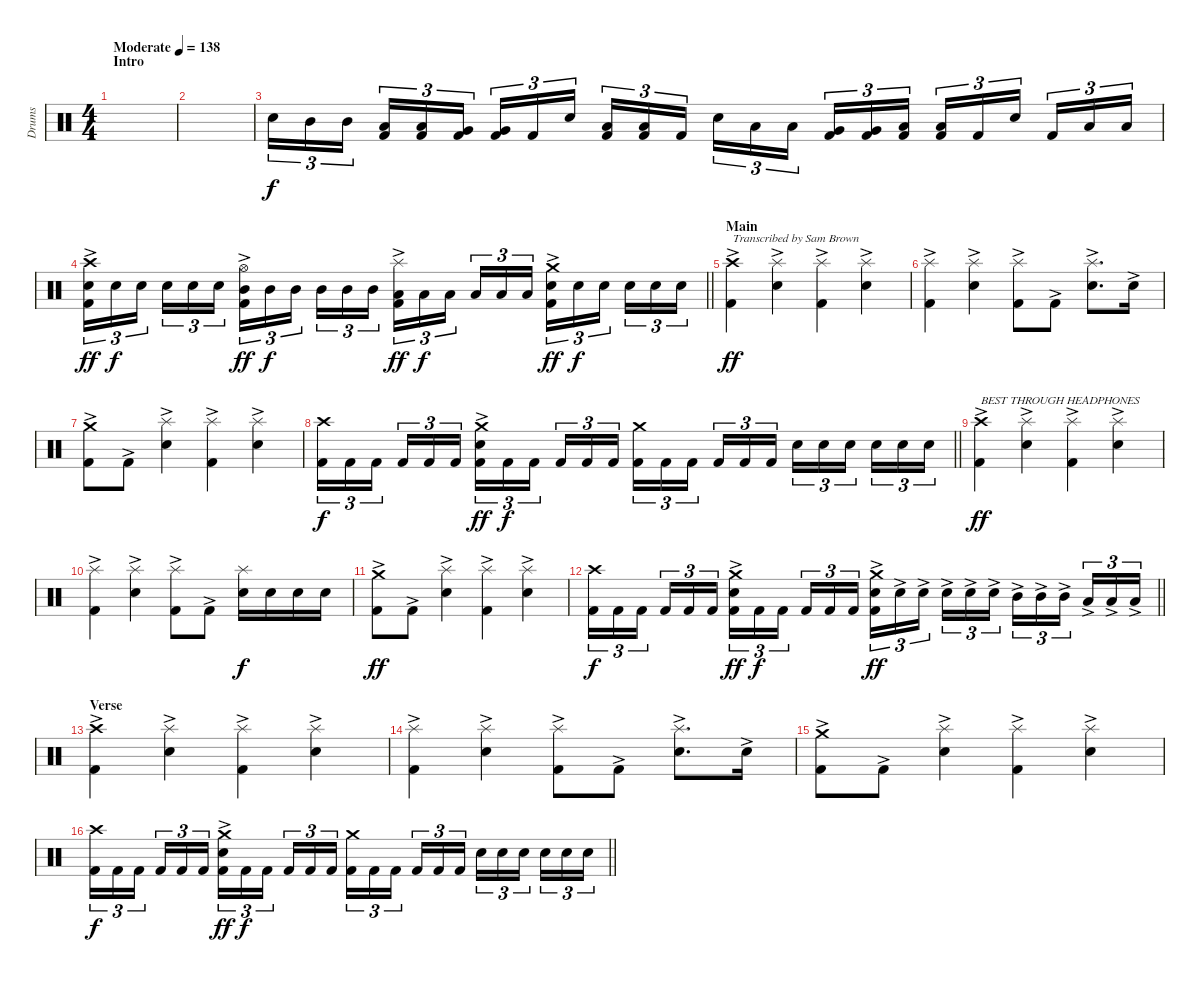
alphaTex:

\track ("Drums" "Drums") {instrument percussion}
\staff {score}
\articulation defaults
\ts (4 4)
\section ("" "Intro")
\tempo (138 "Moderate")
\clef neutral
\ks c
|
|
"Snare (hit) 2".16{tu (3 2)} "Mid Tom (hit)".16{tu (3 2)} "Mid Tom (hit)".16{tu (3 2) beam splitsecondary} ("Kick (hit) 2" "Low Tom (hit)").16{tu (3 2)} ("Kick (hit) 2" "Low Tom (hit)").16{tu (3 2)} ("Kick (hit) 2" "Very Low Tom (hit)").16{tu (3 2)} ("Kick (hit) 2" "Very Low Tom (hit)").16{tu (3 2)} "Kick (hit) 2".16{tu (3 2)} "Snare (hit) 2".16{tu (3 2) beam splitsecondary} ("Kick (hit) 2" "Low Tom (hit)").16{tu (3 2)} ("Kick (hit) 2" "Low Tom (hit)").16{tu (3 2)} "Kick (hit) 2".16{tu (3 2)} "Snare (hit) 2".16{tu (3 2)} "Low Tom (hit)".16{tu (3 2)} "Low Tom (hit)".16{tu (3 2) beam splitsecondary} ("Kick (hit) 2" "Very Low Tom (hit)").16{tu (3 2)} ("Kick (hit) 2" "Very Low Tom (hit)").16{tu (3 2)} ("Kick (hit) 2" "Low Floor Tom (hit)").16{tu (3 2)} ("Kick (hit) 2" "Low Floor Tom (hit)").16{tu (3 2)} "Kick (hit) 2".16{tu (3 2)} "Snare (hit) 2".16{tu (3 2) beam splitsecondary} "Kick (hit) 2".16{tu (3 2)} "Low Tom (hit)".16{tu (3 2)} "Low Tom (hit)".16{tu (3 2)} |
\barLineRight lightlight
("Kick (hit) 2"{ac} "Snare (hit) 2" "Crash high (hit)").16{tu (3 2) dy ff} "Snare (hit) 2".16{tu (3 2) dy f} "Snare (hit) 2".16{tu (3 2) beam splitsecondary} "Snare (hit) 2".16{tu (3 2)} "Snare (hit) 2".16{tu (3 2)} "Snare (hit) 2".16{tu (3 2)} ("Kick (hit) 2"{ac} "Mid Tom (hit)" "Hi-Hat (open)").16{tu (3 2) dy ff} "Mid Tom (hit)".16{tu (3 2) dy f} "Mid Tom (hit)".16{tu (3 2) beam splitsecondary} "Mid Tom (hit)".16{tu (3 2)} "Mid Tom (hit)".16{tu (3 2)} "Mid Tom (hit)".16{tu (3 2)} ("Kick (hit) 2"{ac} "Low Tom (hit)" "Splash (hit)").16{tu (3 2) dy ff} "Low Tom (hit)".16{tu (3 2) dy f} "Low Tom (hit)".16{tu (3 2) beam splitsecondary} "Low Tom (hit)".16{tu (3 2)} "Low Tom (hit)".16{tu (3 2)} "Low Tom (hit)".16{tu (3 2)} ("Kick (hit) 2"{ac} "Snare (hit) 2" "Crash medium (hit)").16{tu (3 2) dy ff} "Snare (hit) 2".16{tu (3 2) dy f} "Snare (hit) 2".16{tu (3 2) beam splitsecondary} "Snare (hit) 2".16{tu (3 2)} "Snare (hit) 2".16{tu (3 2)} "Snare (hit) 2".16{tu (3 2)} |
\section ("" "Main")
("Kick (hit) 2"{ac} "Crash high (hit)").4{txt "Transcribed by Sam Brown" dy ff} ("Snare (hit) 2"{ac} "Splash (hit)").4 ("Kick (hit) 2"{ac} "Splash (hit)").4 ("Snare (hit) 2"{ac} "Splash (hit)").4 |
("Kick (hit) 2"{ac} "Splash (hit)").4 ("Snare (hit) 2"{ac} "Splash (hit)").4 ("Kick (hit) 2"{ac} "Splash (hit)").8 "Kick (hit) 2"{ac}.8 ("Snare (hit) 2"{ac} "Splash (hit)").8{d} "Snare (hit) 2"{ac}.16 |
("Kick (hit) 2"{ac} "Crash medium (hit)").8 "Kick (hit) 2"{ac}.8 ("Snare (hit) 2"{ac} "Splash (hit)").4 ("Kick (hit) 2"{ac} "Splash (hit)").4 ("Snare (hit) 2"{ac} "Splash (hit)").4 |
\barLineRight lightlight
("Kick (hit) 2" "Crash high (hit)").16{tu (3 2) dy f} "Kick (hit) 2".16{tu (3 2)} "Kick (hit) 2".16{tu (3 2) beam splitsecondary} "Kick (hit) 2".16{tu (3 2)} "Kick (hit) 2".16{tu (3 2)} "Kick (hit) 2".16{tu (3 2)} ("Kick (hit) 2" "Snare (hit) 2"{ac} "Crash medium (hit)").16{tu (3 2) dy ff} "Kick (hit) 2".16{tu (3 2) dy f} "Kick (hit) 2".16{tu (3 2) beam splitsecondary} "Kick (hit) 2".16{tu (3 2)} "Kick (hit) 2".16{tu (3 2)} "Kick (hit) 2".16{tu (3 2)} ("Kick (hit) 2" "Crash medium (hit)").16{tu (3 2)} "Kick (hit) 2".16{tu (3 2)} "Kick (hit) 2".16{tu (3 2) beam splitsecondary} "Kick (hit) 2".16{tu (3 2)} "Kick (hit) 2".16{tu (3 2)} "Kick (hit) 2".16{tu (3 2)} "Snare (hit) 2".16{tu (3 2)} "Snare (hit) 2".16{tu (3 2)} "Snare (hit) 2".16{tu (3 2) beam splitsecondary} "Snare (hit) 2".16{tu (3 2)} "Snare (hit) 2".16{tu (3 2)} "Snare (hit) 2".16{tu (3 2)} |
\section ("" "")
("Kick (hit) 2"{ac} "Crash high (hit)").4{txt "BEST THROUGH HEADPHONES" dy ff} ("Snare (hit) 2"{ac} "Splash (hit)").4 ("Kick (hit) 2"{ac} "Splash (hit)").4 ("Snare (hit) 2"{ac} "Splash (hit)").4 |
("Kick (hit) 2"{ac} "Splash (hit)").4 ("Snare (hit) 2"{ac} "Splash (hit)").4 ("Kick (hit) 2"{ac} "Splash (hit)").8 "Kick (hit) 2"{ac}.8 ("Snare (hit) 2" "Splash (hit)").16{dy f} "Snare (hit) 2".16 "Snare (hit) 2".16 "Snare (hit) 2".16 |
("Kick (hit) 2"{ac} "Crash medium (hit)").8{dy ff} "Kick (hit) 2"{ac}.8 ("Snare (hit) 2"{ac} "Splash (hit)").4 ("Kick (hit) 2"{ac} "Splash (hit)").4 ("Snare (hit) 2"{ac} "Splash (hit)").4 |
\barLineRight lightlight
("Kick (hit) 2" "Crash high (hit)").16{tu (3 2) dy f} "Kick (hit) 2".16{tu (3 2)} "Kick (hit) 2".16{tu (3 2) beam splitsecondary} "Kick (hit) 2".16{tu (3 2)} "Kick (hit) 2".16{tu (3 2)} "Kick (hit) 2".16{tu (3 2)} ("Kick (hit) 2" "Snare (hit) 2"{ac} "Crash medium (hit)").16{tu (3 2) dy ff} "Kick (hit) 2".16{tu (3 2) dy f} "Kick (hit) 2".16{tu (3 2) beam splitsecondary} "Kick (hit) 2".16{tu (3 2)} "Kick (hit) 2".16{tu (3 2)} "Kick (hit) 2".16{tu (3 2)} ("Kick (hit) 2" "Snare (hit) 2"{ac} "Crash medium (hit)").16{tu (3 2) dy ff} "Snare (hit) 2"{ac}.16{tu (3 2)} "Snare (hit) 2"{ac}.16{tu (3 2) beam splitsecondary} "Snare (hit) 2"{ac}.16{tu (3 2)} "Snare (hit) 2"{ac}.16{tu (3 2)} "Snare (hit) 2"{ac}.16{tu (3 2)} "Mid Tom (hit)"{ac}.16{tu (3 2)} "Mid Tom (hit)"{ac}.16{tu (3 2)} "Mid Tom (hit)"{ac}.16{tu (3 2) beam splitsecondary} "Low Tom (hit)"{ac}.16{tu (3 2)} "Low Tom (hit)"{ac}.16{tu (3 2)} "Low Tom (hit)"{ac}.16{tu (3 2)} |
\section ("" "Verse")
("Kick (hit) 2"{ac} "Crash high (hit)").4 ("Snare (hit) 2"{ac} "Splash (hit)").4 ("Kick (hit) 2"{ac} "Splash (hit)").4 ("Snare (hit) 2"{ac} "Splash (hit)").4 |
("Kick (hit) 2"{ac} "Splash (hit)").4 ("Snare (hit) 2"{ac} "Splash (hit)").4 ("Kick (hit) 2"{ac} "Splash (hit)").8 "Kick (hit) 2"{ac}.8 ("Snare (hit) 2"{ac} "Splash (hit)").8{d} "Snare (hit) 2"{ac}.16 |
("Kick (hit) 2"{ac} "Crash medium (hit)").8 "Kick (hit) 2"{ac}.8 ("Snare (hit) 2"{ac} "Splash (hit)").4 ("Kick (hit) 2"{ac} "Splash (hit)").4 ("Snare (hit) 2"{ac} "Splash (hit)").4 |
\barLineRight lightlight
("Kick (hit) 2" "Crash high (hit)").16{tu (3 2) dy f} "Kick (hit) 2".16{tu (3 2)} "Kick (hit) 2".16{tu (3 2) beam splitsecondary} "Kick (hit) 2".16{tu (3 2)} "Kick (hit) 2".16{tu (3 2)} "Kick (hit) 2".16{tu (3 2)} ("Kick (hit) 2" "Snare (hit) 2"{ac} "Crash medium (hit)").16{tu (3 2) dy ff} "Kick (hit) 2".16{tu (3 2) dy f} "Kick (hit) 2".16{tu (3 2) beam splitsecondary} "Kick (hit) 2".16{tu (3 2)} "Kick (hit) 2".16{tu (3 2)} "Kick (hit) 2".16{tu (3 2)} ("Kick (hit) 2" "Crash medium (hit)").16{tu (3 2)} "Kick (hit) 2".16{tu (3 2)} "Kick (hit) 2".16{tu (3 2) beam splitsecondary} "Kick (hit) 2".16{tu (3 2)} "Kick (hit) 2".16{tu (3 2)} "Kick (hit) 2".16{tu (3 2)} "Snare (hit) 2".16{tu (3 2)} "Snare (hit) 2".16{tu (3 2)} "Snare (hit) 2".16{tu (3 2) beam splitsecondary} "Snare (hit) 2".16{tu (3 2)} "Snare (hit) 2".16{tu (3 2)} "Snare (hit) 2".16{tu (3 2)}
